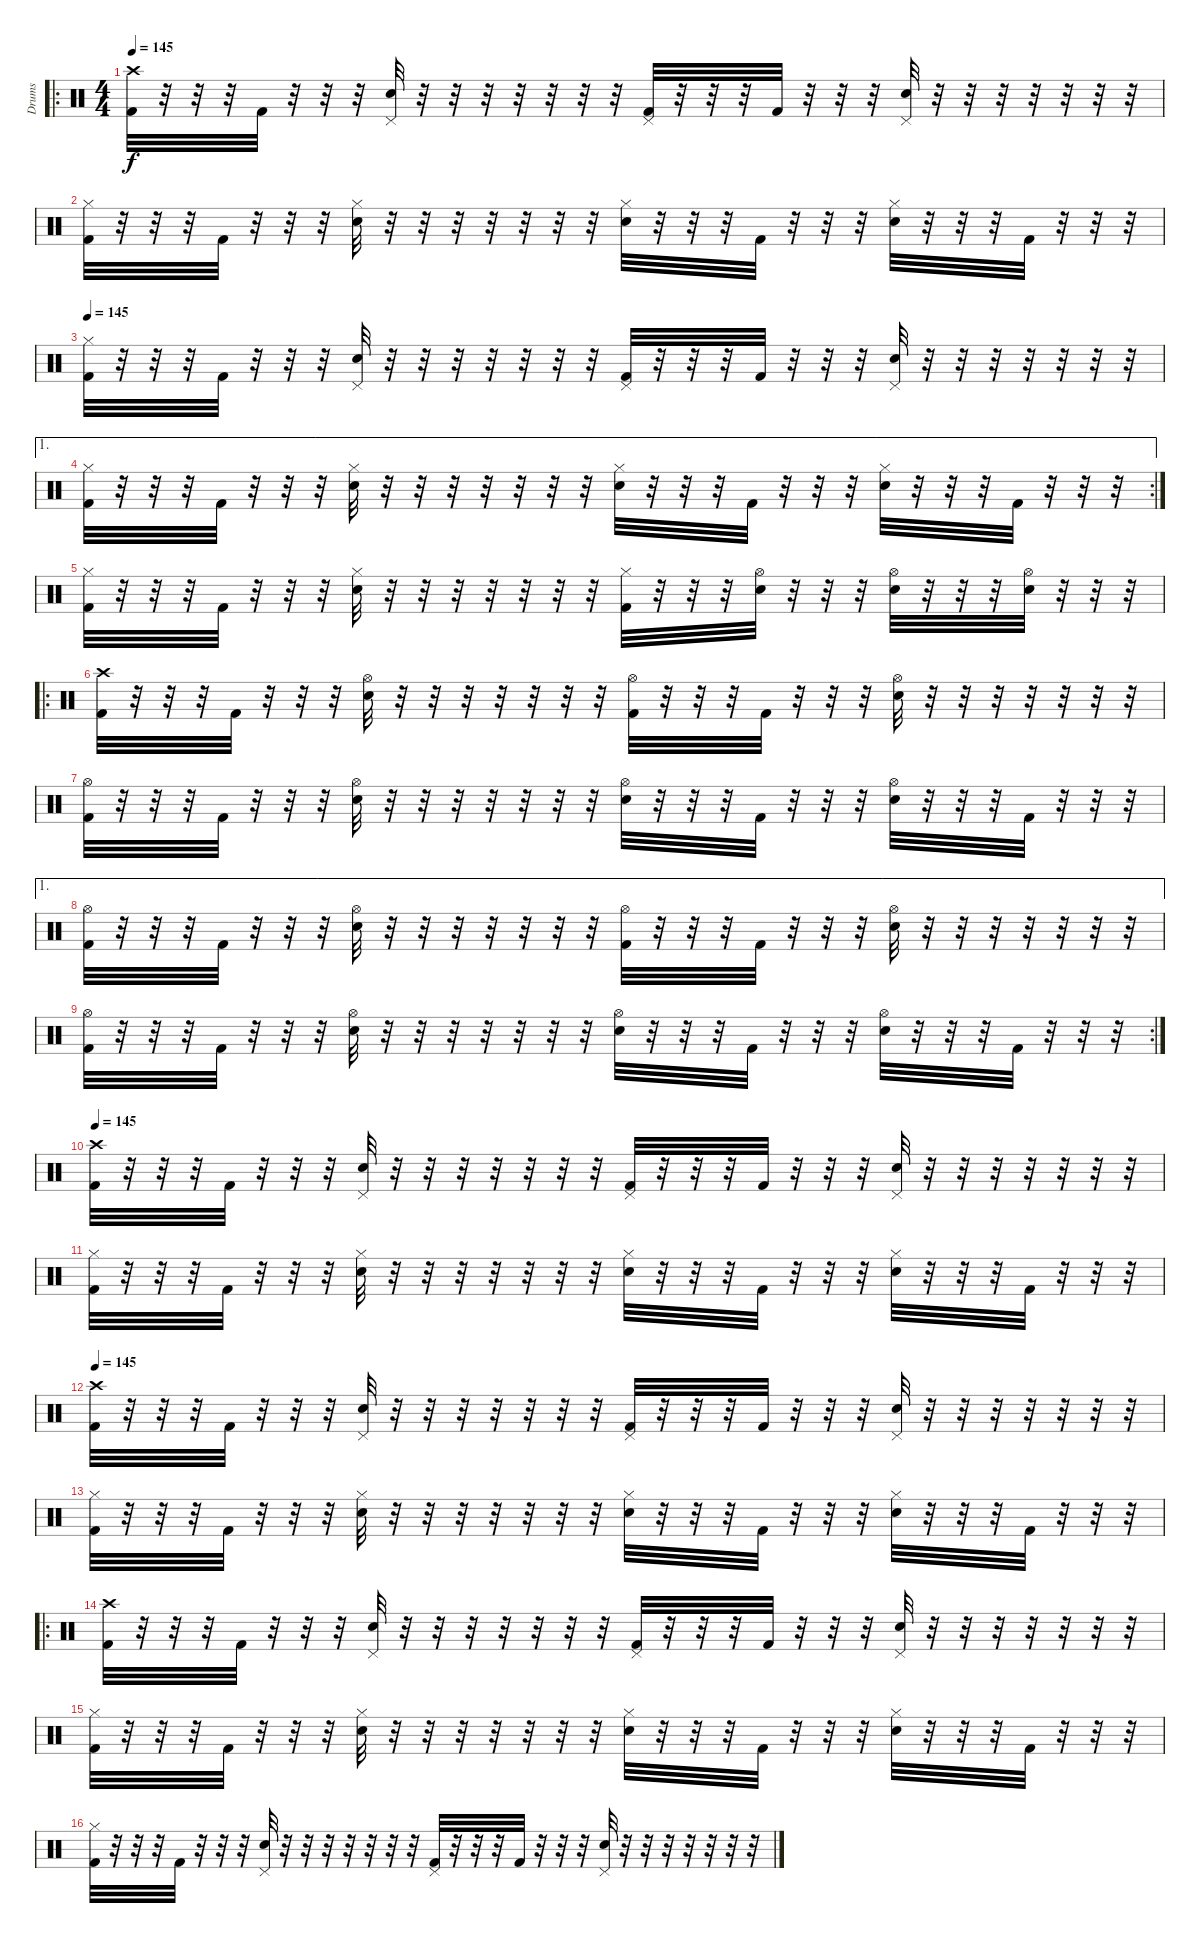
\track ("Drums" "Drums") {instrument percussion}
\staff {score}
\articulation defaults
\ro
\ts (4 4)
\tempo 145
\clef neutral
\ks c
("Crash high (hit)" "Kick (hit) 2").32{dy f} r.32 r.32 r.32 "Kick (hit) 2".32 r.32 r.32 r.32 ("Pedal Hi-Hat (hit)" "Snare (hit) 2").32 r.32 r.32 r.32 r.32 r.32 r.32 r.32 ("Pedal Hi-Hat (hit)" "Kick (hit) 2").32 r.32 r.32 r.32 "Kick (hit) 2".32 r.32 r.32 r.32 ("Pedal Hi-Hat (hit)" "Snare (hit) 2").32 r.32 r.32 r.32 r.32 r.32 r.32 r.32 |
("Hi-Hat (closed)" "Kick (hit) 2").32 r.32 r.32 r.32 "Kick (hit) 2".32 r.32 r.32 r.32 ("Hi-Hat (closed)" "Snare (hit) 2").32 r.32 r.32 r.32 r.32 r.32 r.32 r.32 ("Hi-Hat (closed)" "Snare (hit) 2").32 r.32 r.32 r.32 "Kick (hit) 2".32 r.32 r.32 r.32 ("Hi-Hat (closed)" "Snare (hit) 2").32 r.32 r.32 r.32 "Kick (hit) 2".32 r.32 r.32 r.32 |
\tempo 145
("Hi-Hat (closed)" "Kick (hit) 2").32 r.32 r.32 r.32 "Kick (hit) 2".32 r.32 r.32 r.32 ("Pedal Hi-Hat (hit)" "Snare (hit) 2").32 r.32 r.32 r.32 r.32 r.32 r.32 r.32 ("Pedal Hi-Hat (hit)" "Kick (hit) 2").32 r.32 r.32 r.32 "Kick (hit) 2".32 r.32 r.32 r.32 ("Pedal Hi-Hat (hit)" "Snare (hit) 2").32 r.32 r.32 r.32 r.32 r.32 r.32 r.32 |
\ae 1
\rc 2
("Hi-Hat (closed)" "Kick (hit) 2").32 r.32 r.32 r.32 "Kick (hit) 2".32 r.32 r.32 r.32 ("Hi-Hat (closed)" "Snare (hit) 2").32 r.32 r.32 r.32 r.32 r.32 r.32 r.32 ("Hi-Hat (closed)" "Snare (hit) 2").32 r.32 r.32 r.32 "Kick (hit) 2".32 r.32 r.32 r.32 ("Hi-Hat (closed)" "Snare (hit) 2").32 r.32 r.32 r.32 "Kick (hit) 2".32 r.32 r.32 r.32 |
("Hi-Hat (closed)" "Kick (hit) 2").32 r.32 r.32 r.32 "Kick (hit) 2".32 r.32 r.32 r.32 ("Hi-Hat (closed)" "Snare (hit) 2").32 r.32 r.32 r.32 r.32 r.32 r.32 r.32 ("Hi-Hat (closed)" "Kick (hit) 2").32 r.32 r.32 r.32 ("Hi-Hat (open)" "Snare (hit) 2").32 r.32 r.32 r.32 ("Hi-Hat (open)" "Snare (hit) 2").32 r.32 r.32 r.32 ("Hi-Hat (open)" "Snare (hit) 2").32 r.32 r.32 r.32 |
\ro
("Crash high (hit)" "Kick (hit) 2").32 r.32 r.32 r.32 "Kick (hit) 2".32 r.32 r.32 r.32 ("Hi-Hat (open)" "Snare (hit) 2").32 r.32 r.32 r.32 r.32 r.32 r.32 r.32 ("Hi-Hat (open)" "Kick (hit) 2").32 r.32 r.32 r.32 "Kick (hit) 2".32 r.32 r.32 r.32 ("Hi-Hat (open)" "Snare (hit) 2").32 r.32 r.32 r.32 r.32 r.32 r.32 r.32 |
("Hi-Hat (open)" "Kick (hit) 2").32 r.32 r.32 r.32 "Kick (hit) 2".32 r.32 r.32 r.32 ("Hi-Hat (open)" "Snare (hit) 2").32 r.32 r.32 r.32 r.32 r.32 r.32 r.32 ("Hi-Hat (open)" "Snare (hit) 2").32 r.32 r.32 r.32 "Kick (hit) 2".32 r.32 r.32 r.32 ("Hi-Hat (open)" "Snare (hit) 2").32 r.32 r.32 r.32 "Kick (hit) 2".32 r.32 r.32 r.32 |
\ae 1
("Hi-Hat (open)" "Kick (hit) 2").32 r.32 r.32 r.32 "Kick (hit) 2".32 r.32 r.32 r.32 ("Hi-Hat (open)" "Snare (hit) 2").32 r.32 r.32 r.32 r.32 r.32 r.32 r.32 ("Hi-Hat (open)" "Kick (hit) 2").32 r.32 r.32 r.32 "Kick (hit) 2".32 r.32 r.32 r.32 ("Hi-Hat (open)" "Snare (hit) 2").32 r.32 r.32 r.32 r.32 r.32 r.32 r.32 |
\rc 2
("Hi-Hat (open)" "Kick (hit) 2").32 r.32 r.32 r.32 "Kick (hit) 2".32 r.32 r.32 r.32 ("Hi-Hat (open)" "Snare (hit) 2").32 r.32 r.32 r.32 r.32 r.32 r.32 r.32 ("Hi-Hat (open)" "Snare (hit) 2").32 r.32 r.32 r.32 "Kick (hit) 2".32 r.32 r.32 r.32 ("Hi-Hat (open)" "Snare (hit) 2").32 r.32 r.32 r.32 "Kick (hit) 2".32 r.32 r.32 r.32 |
\tempo 145
("Crash high (hit)" "Kick (hit) 2").32 r.32 r.32 r.32 "Kick (hit) 2".32 r.32 r.32 r.32 ("Pedal Hi-Hat (hit)" "Snare (hit) 2").32 r.32 r.32 r.32 r.32 r.32 r.32 r.32 ("Pedal Hi-Hat (hit)" "Kick (hit) 2").32 r.32 r.32 r.32 "Kick (hit) 2".32 r.32 r.32 r.32 ("Pedal Hi-Hat (hit)" "Snare (hit) 2").32 r.32 r.32 r.32 r.32 r.32 r.32 r.32 |
("Hi-Hat (closed)" "Kick (hit) 2").32 r.32 r.32 r.32 "Kick (hit) 2".32 r.32 r.32 r.32 ("Hi-Hat (closed)" "Snare (hit) 2").32 r.32 r.32 r.32 r.32 r.32 r.32 r.32 ("Hi-Hat (closed)" "Snare (hit) 2").32 r.32 r.32 r.32 "Kick (hit) 2".32 r.32 r.32 r.32 ("Hi-Hat (closed)" "Snare (hit) 2").32 r.32 r.32 r.32 "Kick (hit) 2".32 r.32 r.32 r.32 |
\tempo 145
("Crash high (hit)" "Kick (hit) 2").32 r.32 r.32 r.32 "Kick (hit) 2".32 r.32 r.32 r.32 ("Pedal Hi-Hat (hit)" "Snare (hit) 2").32 r.32 r.32 r.32 r.32 r.32 r.32 r.32 ("Pedal Hi-Hat (hit)" "Kick (hit) 2").32 r.32 r.32 r.32 "Kick (hit) 2".32 r.32 r.32 r.32 ("Pedal Hi-Hat (hit)" "Snare (hit) 2").32 r.32 r.32 r.32 r.32 r.32 r.32 r.32 |
("Hi-Hat (closed)" "Kick (hit) 2").32 r.32 r.32 r.32 "Kick (hit) 2".32 r.32 r.32 r.32 ("Hi-Hat (closed)" "Snare (hit) 2").32 r.32 r.32 r.32 r.32 r.32 r.32 r.32 ("Hi-Hat (closed)" "Snare (hit) 2").32 r.32 r.32 r.32 "Kick (hit) 2".32 r.32 r.32 r.32 ("Hi-Hat (closed)" "Snare (hit) 2").32 r.32 r.32 r.32 "Kick (hit) 2".32 r.32 r.32 r.32 |
\ro
("Crash high (hit)" "Kick (hit) 2").32 r.32 r.32 r.32 "Kick (hit) 2".32 r.32 r.32 r.32 ("Pedal Hi-Hat (hit)" "Snare (hit) 2").32 r.32 r.32 r.32 r.32 r.32 r.32 r.32 ("Pedal Hi-Hat (hit)" "Kick (hit) 2").32 r.32 r.32 r.32 "Kick (hit) 2".32 r.32 r.32 r.32 ("Pedal Hi-Hat (hit)" "Snare (hit) 2").32 r.32 r.32 r.32 r.32 r.32 r.32 r.32 |
("Hi-Hat (closed)" "Kick (hit) 2").32 r.32 r.32 r.32 "Kick (hit) 2".32 r.32 r.32 r.32 ("Hi-Hat (closed)" "Snare (hit) 2").32 r.32 r.32 r.32 r.32 r.32 r.32 r.32 ("Hi-Hat (closed)" "Snare (hit) 2").32 r.32 r.32 r.32 "Kick (hit) 2".32 r.32 r.32 r.32 ("Hi-Hat (closed)" "Snare (hit) 2").32 r.32 r.32 r.32 "Kick (hit) 2".32 r.32 r.32 r.32 |
("Hi-Hat (closed)" "Kick (hit) 2").32 r.32 r.32 r.32 "Kick (hit) 2".32 r.32 r.32 r.32 ("Pedal Hi-Hat (hit)" "Snare (hit) 2").32 r.32 r.32 r.32 r.32 r.32 r.32 r.32 ("Pedal Hi-Hat (hit)" "Kick (hit) 2").32 r.32 r.32 r.32 "Kick (hit) 2".32 r.32 r.32 r.32 ("Pedal Hi-Hat (hit)" "Snare (hit) 2").32 r.32 r.32 r.32 r.32 r.32 r.32 r.32
